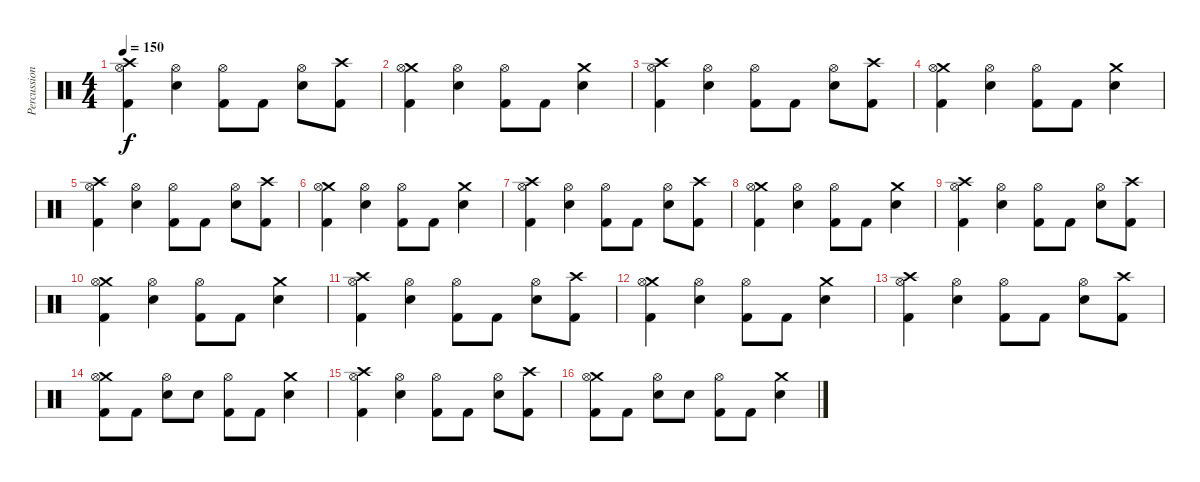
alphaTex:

\track ("Percussion" "Percussion") {instrument percussion}
\staff {score}
\articulation defaults
\ts (4 4)
\tempo 150
\clef neutral
\ks c
("Crash high (hit)" "Hi-Hat (open)" "Kick (hit) 2").4{dy f} ("Hi-Hat (open)" "Snare (hit) 2").4 ("Hi-Hat (open)" "Kick (hit) 2").8 "Kick (hit) 2".8 ("Hi-Hat (open)" "Snare (hit) 2").8 ("Crash high (hit)" "Kick (hit) 2").8 |
("Crash medium (hit)" "Hi-Hat (open)" "Kick (hit) 2").4 ("Hi-Hat (open)" "Snare (hit) 2").4 ("Hi-Hat (open)" "Kick (hit) 2").8 "Kick (hit) 2".8 ("Crash medium (hit)" "Snare (hit) 2").4 |
("Crash high (hit)" "Hi-Hat (open)" "Kick (hit) 2").4 ("Hi-Hat (open)" "Snare (hit) 2").4 ("Hi-Hat (open)" "Kick (hit) 2").8 "Kick (hit) 2".8 ("Hi-Hat (open)" "Snare (hit) 2").8 ("Crash high (hit)" "Kick (hit) 2").8 |
("Crash medium (hit)" "Hi-Hat (open)" "Kick (hit) 2").4 ("Hi-Hat (open)" "Snare (hit) 2").4 ("Hi-Hat (open)" "Kick (hit) 2").8 "Kick (hit) 2".8 ("Crash medium (hit)" "Snare (hit) 2").4 |
("Crash high (hit)" "Hi-Hat (open)" "Kick (hit) 2").4 ("Hi-Hat (open)" "Snare (hit) 2").4 ("Hi-Hat (open)" "Kick (hit) 2").8 "Kick (hit) 2".8 ("Hi-Hat (open)" "Snare (hit) 2").8 ("Crash high (hit)" "Kick (hit) 2").8 |
("Crash medium (hit)" "Hi-Hat (open)" "Kick (hit) 2").4 ("Hi-Hat (open)" "Snare (hit) 2").4 ("Hi-Hat (open)" "Kick (hit) 2").8 "Kick (hit) 2".8 ("Crash medium (hit)" "Snare (hit) 2").4 |
("Crash high (hit)" "Hi-Hat (open)" "Kick (hit) 2").4 ("Hi-Hat (open)" "Snare (hit) 2").4 ("Hi-Hat (open)" "Kick (hit) 2").8 "Kick (hit) 2".8 ("Hi-Hat (open)" "Snare (hit) 2").8 ("Crash high (hit)" "Kick (hit) 2").8 |
("Crash medium (hit)" "Hi-Hat (open)" "Kick (hit) 2").4 ("Hi-Hat (open)" "Snare (hit) 2").4 ("Hi-Hat (open)" "Kick (hit) 2").8 "Kick (hit) 2".8 ("Crash medium (hit)" "Snare (hit) 2").4 |
("Crash high (hit)" "Hi-Hat (open)" "Kick (hit) 2").4 ("Hi-Hat (open)" "Snare (hit) 2").4 ("Hi-Hat (open)" "Kick (hit) 2").8 "Kick (hit) 2".8 ("Hi-Hat (open)" "Snare (hit) 2").8 ("Crash high (hit)" "Kick (hit) 2").8 |
("Crash medium (hit)" "Hi-Hat (open)" "Kick (hit) 2").4 ("Hi-Hat (open)" "Snare (hit) 2").4 ("Hi-Hat (open)" "Kick (hit) 2").8 "Kick (hit) 2".8 ("Crash medium (hit)" "Snare (hit) 2").4 |
("Crash high (hit)" "Hi-Hat (open)" "Kick (hit) 2").4 ("Hi-Hat (open)" "Snare (hit) 2").4 ("Hi-Hat (open)" "Kick (hit) 2").8 "Kick (hit) 2".8 ("Hi-Hat (open)" "Snare (hit) 2").8 ("Crash high (hit)" "Kick (hit) 2").8 |
("Crash medium (hit)" "Hi-Hat (open)" "Kick (hit) 2").4 ("Hi-Hat (open)" "Snare (hit) 2").4 ("Hi-Hat (open)" "Kick (hit) 2").8 "Kick (hit) 2".8 ("Crash medium (hit)" "Snare (hit) 2").4 |
("Crash high (hit)" "Hi-Hat (open)" "Kick (hit) 2").4 ("Hi-Hat (open)" "Snare (hit) 2").4 ("Hi-Hat (open)" "Kick (hit) 2").8 "Kick (hit) 2".8 ("Hi-Hat (open)" "Snare (hit) 2").8 ("Crash high (hit)" "Kick (hit) 2").8 |
("Crash medium (hit)" "Hi-Hat (open)" "Kick (hit) 2").8 "Kick (hit) 2".8 ("Hi-Hat (open)" "Snare (hit) 2").8 "Snare (hit) 2".8 ("Hi-Hat (open)" "Kick (hit) 2").8 "Kick (hit) 2".8 ("Crash medium (hit)" "Snare (hit) 2").4 |
("Crash high (hit)" "Hi-Hat (open)" "Kick (hit) 2").4 ("Hi-Hat (open)" "Snare (hit) 2").4 ("Hi-Hat (open)" "Kick (hit) 2").8 "Kick (hit) 2".8 ("Hi-Hat (open)" "Snare (hit) 2").8 ("Crash high (hit)" "Kick (hit) 2").8 |
("Crash medium (hit)" "Hi-Hat (open)" "Kick (hit) 2").8 "Kick (hit) 2".8 ("Hi-Hat (open)" "Snare (hit) 2").8 "Snare (hit) 2".8 ("Hi-Hat (open)" "Kick (hit) 2").8 "Kick (hit) 2".8 ("Crash medium (hit)" "Snare (hit) 2").4
